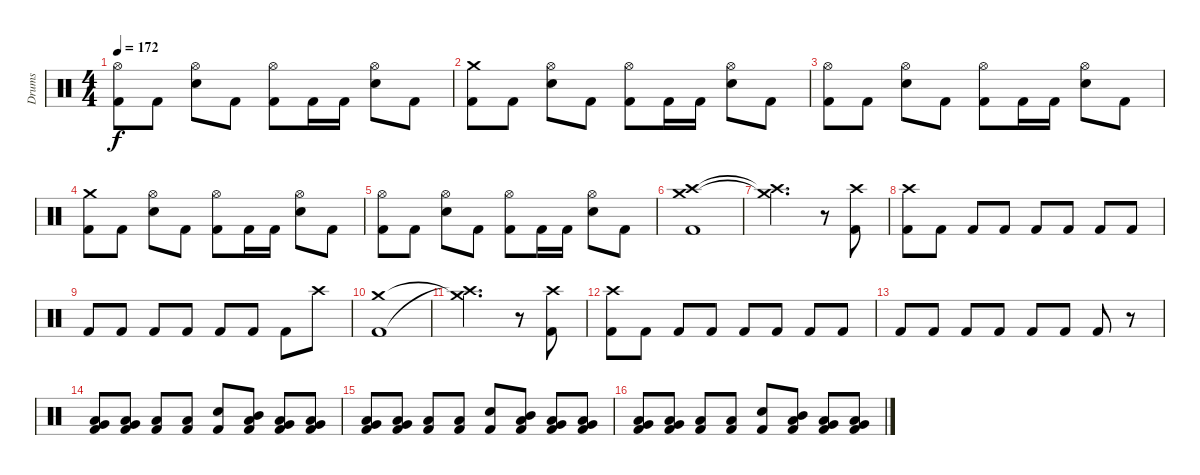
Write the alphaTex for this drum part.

\track ("Drums" "Drums") {instrument percussion}
\staff {score}
\articulation defaults
\ts (4 4)
\tempo 172
\clef neutral
\ks c
("Hi-Hat (open)" "Kick (hit) 2").8{dy f} "Kick (hit) 2".8 ("Hi-Hat (open)" "Electric Snare (hit)").8 "Kick (hit) 2".8 ("Hi-Hat (open)" "Kick (hit) 2").8 "Kick (hit) 2".16 "Kick (hit) 2".16 ("Hi-Hat (open)" "Electric Snare (hit)").8 "Kick (hit) 2".8 |
("Crash medium (hit)" "Kick (hit) 2").8 "Kick (hit) 2".8 ("Hi-Hat (open)" "Electric Snare (hit)").8 "Kick (hit) 2".8 ("Hi-Hat (open)" "Kick (hit) 2").8 "Kick (hit) 2".16 "Kick (hit) 2".16 ("Hi-Hat (open)" "Electric Snare (hit)").8 "Kick (hit) 2".8 |
("Hi-Hat (open)" "Kick (hit) 2").8 "Kick (hit) 2".8 ("Hi-Hat (open)" "Electric Snare (hit)").8 "Kick (hit) 2".8 ("Hi-Hat (open)" "Kick (hit) 2").8 "Kick (hit) 2".16 "Kick (hit) 2".16 ("Hi-Hat (open)" "Electric Snare (hit)").8 "Kick (hit) 2".8 |
("Crash medium (hit)" "Kick (hit) 2").8 "Kick (hit) 2".8 ("Hi-Hat (open)" "Electric Snare (hit)").8 "Kick (hit) 2".8 ("Hi-Hat (open)" "Kick (hit) 2").8 "Kick (hit) 2".16 "Kick (hit) 2".16 ("Hi-Hat (open)" "Electric Snare (hit)").8 "Kick (hit) 2".8 |
("Hi-Hat (open)" "Kick (hit) 2").8 "Kick (hit) 2".8 ("Hi-Hat (open)" "Electric Snare (hit)").8 "Kick (hit) 2".8 ("Hi-Hat (open)" "Kick (hit) 2").8 "Kick (hit) 2".16 "Kick (hit) 2".16 ("Hi-Hat (open)" "Electric Snare (hit)").8 "Kick (hit) 2".8 |
("Crash medium (hit)" "Crash high (hit)" "Kick (hit) 2").1 |
("Crash medium (hit)"{t} "Crash high (hit)"{t}).2{d} r.8 ("Crash high (hit)" "Kick (hit) 2").8 |
("Crash high (hit)" "Kick (hit) 2").8 "Kick (hit) 2".8 "Kick (hit) 2".8 "Kick (hit) 2".8 "Kick (hit) 2".8 "Kick (hit) 2".8 "Kick (hit) 2".8 "Kick (hit) 2".8 |
"Kick (hit) 2".8 "Kick (hit) 2".8 "Kick (hit) 2".8 "Kick (hit) 2".8 "Kick (hit) 2".8 "Kick (hit) 2".8 "Kick (hit) 2".8 "Crash high (hit)".8 |
("Crash medium (hit)" "Kick (hit) 2").1 |
("Crash medium (hit)"{t} "Crash high (hit)"{t}).2{d} r.8 ("Crash high (hit)" "Kick (hit) 2").8 |
("Crash high (hit)" "Kick (hit) 2").8 "Kick (hit) 2".8 "Kick (hit) 2".8 "Kick (hit) 2".8 "Kick (hit) 2".8 "Kick (hit) 2".8 "Kick (hit) 2".8 "Kick (hit) 2".8 |
"Kick (hit) 2".8 "Kick (hit) 2".8 "Kick (hit) 2".8 "Kick (hit) 2".8 "Kick (hit) 2".8 "Kick (hit) 2".8 "Kick (hit) 2".8 r.8 |
("Low Tom (hit)" "Very Low Tom (hit)" "Kick (hit) 2").8 ("Very Low Tom (hit)" "Low Floor Tom (hit)" "Kick (hit) 2").8 ("Low Floor Tom (hit)" "Kick (hit) 2").8 ("Low Floor Tom (hit)" "Kick (hit) 2").8 ("Electric Snare (hit)" "Kick (hit) 2").8 ("Mid Tom (hit)" "Low Tom (hit)" "Kick (hit) 2").8 ("Low Tom (hit)" "Very Low Tom (hit)" "Kick (hit) 2").8 ("Very Low Tom (hit)" "Low Floor Tom (hit)" "Kick (hit) 2").8 |
("Low Tom (hit)" "Very Low Tom (hit)" "Kick (hit) 2").8 ("Very Low Tom (hit)" "Low Floor Tom (hit)" "Kick (hit) 2").8 ("Low Floor Tom (hit)" "Kick (hit) 2").8 ("Low Floor Tom (hit)" "Kick (hit) 2").8 ("Electric Snare (hit)" "Kick (hit) 2").8 ("Mid Tom (hit)" "Low Tom (hit)" "Kick (hit) 2").8 ("Low Tom (hit)" "Very Low Tom (hit)" "Kick (hit) 2").8 ("Very Low Tom (hit)" "Low Floor Tom (hit)" "Kick (hit) 2").8 |
("Low Tom (hit)" "Very Low Tom (hit)" "Kick (hit) 2").8 ("Very Low Tom (hit)" "Low Floor Tom (hit)" "Kick (hit) 2").8 ("Low Floor Tom (hit)" "Kick (hit) 2").8 ("Low Floor Tom (hit)" "Kick (hit) 2").8 ("Electric Snare (hit)" "Kick (hit) 2").8 ("Mid Tom (hit)" "Low Tom (hit)" "Kick (hit) 2").8 ("Low Tom (hit)" "Very Low Tom (hit)" "Kick (hit) 2").8 ("Very Low Tom (hit)" "Low Floor Tom (hit)" "Kick (hit) 2").8
